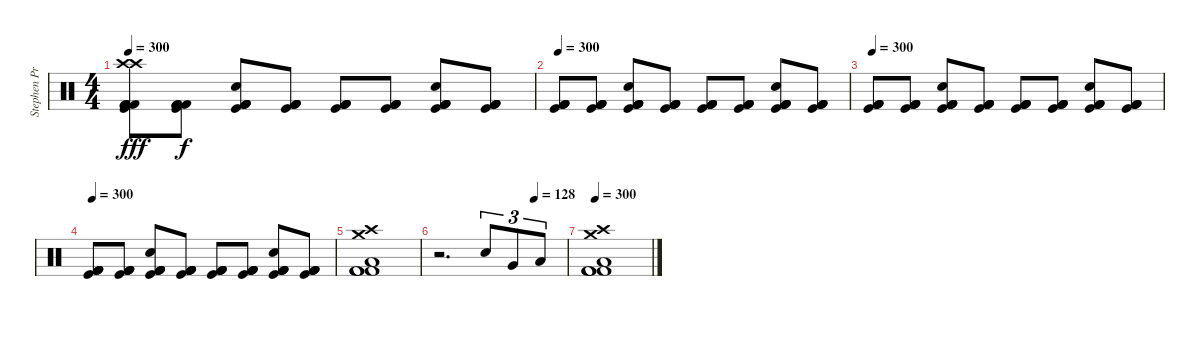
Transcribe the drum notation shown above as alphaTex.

\track ("Stephen Priestly  (Drums)" "Stephen Pr") {instrument percussion}
\staff {score}
\articulation defaults
\ts (4 4)
\tempo 300
\clef neutral
\ks c
("Crash high (hit)" "Crash high (hit)" "Kick (hit)" "Kick (hit) 2" "Kick (hit) 2" "Kick (hit) 2").8{dy fff} ("Kick (hit)" "Kick (hit) 2" "Kick (hit) 2" "Kick (hit) 2").8{dy f} ("Electric Snare (hit)" "Kick (hit)" "Kick (hit) 2" "Kick (hit) 2" "Kick (hit) 2").8 ("Kick (hit)" "Kick (hit) 2" "Kick (hit) 2" "Kick (hit) 2").8 ("Kick (hit)" "Kick (hit) 2" "Kick (hit) 2" "Kick (hit) 2").8 ("Kick (hit)" "Kick (hit) 2" "Kick (hit) 2" "Kick (hit) 2").8 ("Electric Snare (hit)" "Kick (hit)" "Kick (hit) 2" "Kick (hit) 2" "Kick (hit) 2").8 ("Kick (hit)" "Kick (hit) 2" "Kick (hit) 2" "Kick (hit) 2").8 |
\tempo 300
("Kick (hit)" "Kick (hit) 2" "Kick (hit) 2" "Kick (hit) 2").8 ("Kick (hit)" "Kick (hit) 2" "Kick (hit) 2" "Kick (hit) 2").8 ("Electric Snare (hit)" "Kick (hit)" "Kick (hit) 2" "Kick (hit) 2" "Kick (hit) 2").8 ("Kick (hit)" "Kick (hit) 2" "Kick (hit) 2" "Kick (hit) 2").8 ("Kick (hit)" "Kick (hit) 2" "Kick (hit) 2" "Kick (hit) 2").8 ("Kick (hit)" "Kick (hit) 2" "Kick (hit) 2" "Kick (hit) 2").8 ("Electric Snare (hit)" "Kick (hit)" "Kick (hit) 2" "Kick (hit) 2" "Kick (hit) 2").8 ("Kick (hit)" "Kick (hit) 2" "Kick (hit) 2" "Kick (hit) 2").8 |
\tempo 300
("Kick (hit)" "Kick (hit) 2" "Kick (hit) 2" "Kick (hit) 2").8 ("Kick (hit)" "Kick (hit) 2" "Kick (hit) 2" "Kick (hit) 2").8 ("Electric Snare (hit)" "Kick (hit)" "Kick (hit) 2" "Kick (hit) 2" "Kick (hit) 2").8 ("Kick (hit)" "Kick (hit) 2" "Kick (hit) 2" "Kick (hit) 2").8 ("Kick (hit)" "Kick (hit) 2" "Kick (hit) 2" "Kick (hit) 2").8 ("Kick (hit)" "Kick (hit) 2" "Kick (hit) 2" "Kick (hit) 2").8 ("Electric Snare (hit)" "Kick (hit)" "Kick (hit) 2" "Kick (hit) 2" "Kick (hit) 2").8 ("Kick (hit)" "Kick (hit) 2" "Kick (hit) 2" "Kick (hit) 2").8 |
\tempo 300
("Kick (hit)" "Kick (hit) 2" "Kick (hit) 2" "Kick (hit) 2").8 ("Kick (hit)" "Kick (hit) 2" "Kick (hit) 2" "Kick (hit) 2").8 ("Electric Snare (hit)" "Kick (hit)" "Kick (hit) 2" "Kick (hit) 2" "Kick (hit) 2").8 ("Kick (hit)" "Kick (hit) 2" "Kick (hit) 2" "Kick (hit) 2").8 ("Kick (hit)" "Kick (hit) 2" "Kick (hit) 2" "Kick (hit) 2").8 ("Kick (hit)" "Kick (hit) 2" "Kick (hit) 2" "Kick (hit) 2").8 ("Electric Snare (hit)" "Kick (hit)" "Kick (hit) 2" "Kick (hit) 2" "Kick (hit) 2").8 ("Kick (hit)" "Kick (hit) 2" "Kick (hit) 2" "Kick (hit) 2").8 |
("Low Floor Tom (hit)" "Kick (hit) 2" "Crash medium (hit)" "Crash high (hit)" "Kick (hit) 2" "Kick (hit) 2").1 |
\tempo (128 0.75)
r.2{d} "Electric Snare (hit)".8{tu (3 2)} "Very Low Tom (hit)".8{tu (3 2)} "Low Floor Tom (hit)".8{tu (3 2)} |
\tempo 300
("Low Floor Tom (hit)" "Kick (hit) 2" "Crash medium (hit)" "Crash high (hit)" "Kick (hit) 2" "Kick (hit) 2").1
